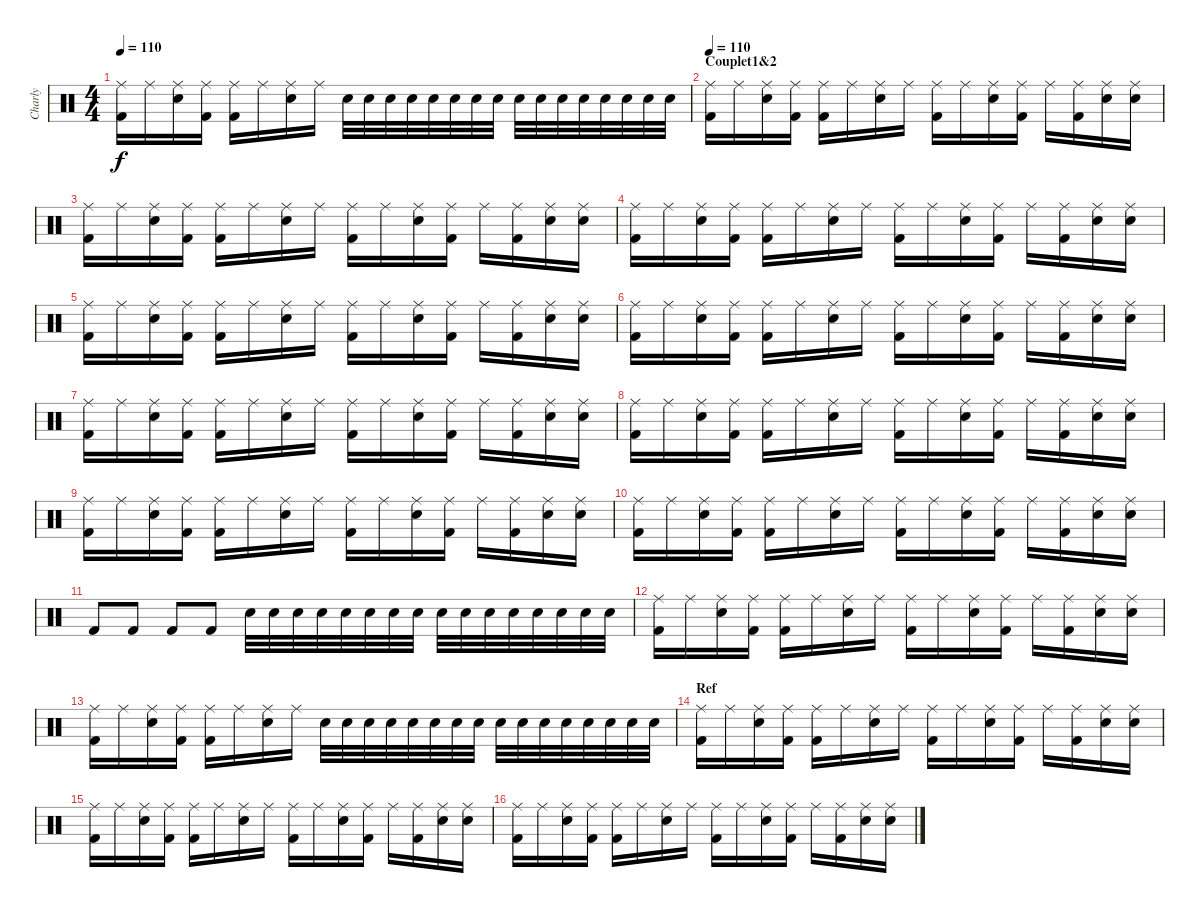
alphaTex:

\track ("Charly" "Charly") {instrument percussion}
\staff {score}
\articulation defaults
\ts (4 4)
\tempo 110
\clef neutral
\ks c
("Ride (middle)" "Kick (hit) 2").16{dy f} "Ride (middle)".16 ("Ride (middle)" "Electric Snare (hit)").16 ("Ride (middle)" "Kick (hit) 2").16 ("Ride (middle)" "Kick (hit) 2").16 "Ride (middle)".16 ("Ride (middle)" "Electric Snare (hit)").16 "Ride (middle)".16 "Electric Snare (hit)".32 "Electric Snare (hit)".32 "Electric Snare (hit)".32 "Electric Snare (hit)".32 "Electric Snare (hit)".32 "Electric Snare (hit)".32 "Electric Snare (hit)".32 "Electric Snare (hit)".32 "Electric Snare (hit)".32 "Electric Snare (hit)".32 "Electric Snare (hit)".32 "Electric Snare (hit)".32 "Electric Snare (hit)".32 "Electric Snare (hit)".32 "Electric Snare (hit)".32 "Electric Snare (hit)".32 |
\section ("" "Couplet1&2")
\tempo 110
("Ride (middle)" "Kick (hit) 2").16 "Ride (middle)".16 ("Ride (middle)" "Electric Snare (hit)").16 ("Ride (middle)" "Kick (hit) 2").16 ("Ride (middle)" "Kick (hit) 2").16 "Ride (middle)".16 ("Ride (middle)" "Electric Snare (hit)").16 "Ride (middle)".16 ("Ride (middle)" "Kick (hit) 2").16 "Ride (middle)".16 ("Ride (middle)" "Electric Snare (hit)").16 ("Ride (middle)" "Kick (hit) 2").16 "Ride (middle)".16 ("Ride (middle)" "Kick (hit) 2").16 ("Ride (middle)" "Electric Snare (hit)").16 ("Ride (middle)" "Electric Snare (hit)").16 |
("Ride (middle)" "Kick (hit) 2").16 "Ride (middle)".16 ("Ride (middle)" "Electric Snare (hit)").16 ("Ride (middle)" "Kick (hit) 2").16 ("Ride (middle)" "Kick (hit) 2").16 "Ride (middle)".16 ("Ride (middle)" "Electric Snare (hit)").16 "Ride (middle)".16 ("Ride (middle)" "Kick (hit) 2").16 "Ride (middle)".16 ("Ride (middle)" "Electric Snare (hit)").16 ("Ride (middle)" "Kick (hit) 2").16 "Ride (middle)".16 ("Ride (middle)" "Kick (hit) 2").16 ("Ride (middle)" "Electric Snare (hit)").16 ("Ride (middle)" "Electric Snare (hit)").16 |
("Ride (middle)" "Kick (hit) 2").16 "Ride (middle)".16 ("Ride (middle)" "Electric Snare (hit)").16 ("Ride (middle)" "Kick (hit) 2").16 ("Ride (middle)" "Kick (hit) 2").16 "Ride (middle)".16 ("Ride (middle)" "Electric Snare (hit)").16 "Ride (middle)".16 ("Ride (middle)" "Kick (hit) 2").16 "Ride (middle)".16 ("Ride (middle)" "Electric Snare (hit)").16 ("Ride (middle)" "Kick (hit) 2").16 "Ride (middle)".16 ("Ride (middle)" "Kick (hit) 2").16 ("Ride (middle)" "Electric Snare (hit)").16 ("Ride (middle)" "Electric Snare (hit)").16 |
("Ride (middle)" "Kick (hit) 2").16 "Ride (middle)".16 ("Ride (middle)" "Electric Snare (hit)").16 ("Ride (middle)" "Kick (hit) 2").16 ("Ride (middle)" "Kick (hit) 2").16 "Ride (middle)".16 ("Ride (middle)" "Electric Snare (hit)").16 "Ride (middle)".16 ("Ride (middle)" "Kick (hit) 2").16 "Ride (middle)".16 ("Ride (middle)" "Electric Snare (hit)").16 ("Ride (middle)" "Kick (hit) 2").16 "Ride (middle)".16 ("Ride (middle)" "Kick (hit) 2").16 ("Ride (middle)" "Electric Snare (hit)").16 ("Ride (middle)" "Electric Snare (hit)").16 |
("Ride (middle)" "Kick (hit) 2").16 "Ride (middle)".16 ("Ride (middle)" "Electric Snare (hit)").16 ("Ride (middle)" "Kick (hit) 2").16 ("Ride (middle)" "Kick (hit) 2").16 "Ride (middle)".16 ("Ride (middle)" "Electric Snare (hit)").16 "Ride (middle)".16 ("Ride (middle)" "Kick (hit) 2").16 "Ride (middle)".16 ("Ride (middle)" "Electric Snare (hit)").16 ("Ride (middle)" "Kick (hit) 2").16 "Ride (middle)".16 ("Ride (middle)" "Kick (hit) 2").16 ("Ride (middle)" "Electric Snare (hit)").16 ("Ride (middle)" "Electric Snare (hit)").16 |
("Ride (middle)" "Kick (hit) 2").16 "Ride (middle)".16 ("Ride (middle)" "Electric Snare (hit)").16 ("Ride (middle)" "Kick (hit) 2").16 ("Ride (middle)" "Kick (hit) 2").16 "Ride (middle)".16 ("Ride (middle)" "Electric Snare (hit)").16 "Ride (middle)".16 ("Ride (middle)" "Kick (hit) 2").16 "Ride (middle)".16 ("Ride (middle)" "Electric Snare (hit)").16 ("Ride (middle)" "Kick (hit) 2").16 "Ride (middle)".16 ("Ride (middle)" "Kick (hit) 2").16 ("Ride (middle)" "Electric Snare (hit)").16 ("Ride (middle)" "Electric Snare (hit)").16 |
("Ride (middle)" "Kick (hit) 2").16 "Ride (middle)".16 ("Ride (middle)" "Electric Snare (hit)").16 ("Ride (middle)" "Kick (hit) 2").16 ("Ride (middle)" "Kick (hit) 2").16 "Ride (middle)".16 ("Ride (middle)" "Electric Snare (hit)").16 "Ride (middle)".16 ("Ride (middle)" "Kick (hit) 2").16 "Ride (middle)".16 ("Ride (middle)" "Electric Snare (hit)").16 ("Ride (middle)" "Kick (hit) 2").16 "Ride (middle)".16 ("Ride (middle)" "Kick (hit) 2").16 ("Ride (middle)" "Electric Snare (hit)").16 ("Ride (middle)" "Electric Snare (hit)").16 |
("Ride (middle)" "Kick (hit) 2").16 "Ride (middle)".16 ("Ride (middle)" "Electric Snare (hit)").16 ("Ride (middle)" "Kick (hit) 2").16 ("Ride (middle)" "Kick (hit) 2").16 "Ride (middle)".16 ("Ride (middle)" "Electric Snare (hit)").16 "Ride (middle)".16 ("Ride (middle)" "Kick (hit) 2").16 "Ride (middle)".16 ("Ride (middle)" "Electric Snare (hit)").16 ("Ride (middle)" "Kick (hit) 2").16 "Ride (middle)".16 ("Ride (middle)" "Kick (hit) 2").16 ("Ride (middle)" "Electric Snare (hit)").16 ("Ride (middle)" "Electric Snare (hit)").16 |
("Ride (middle)" "Kick (hit) 2").16 "Ride (middle)".16 ("Ride (middle)" "Electric Snare (hit)").16 ("Ride (middle)" "Kick (hit) 2").16 ("Ride (middle)" "Kick (hit) 2").16 "Ride (middle)".16 ("Ride (middle)" "Electric Snare (hit)").16 "Ride (middle)".16 ("Ride (middle)" "Kick (hit) 2").16 "Ride (middle)".16 ("Ride (middle)" "Electric Snare (hit)").16 ("Ride (middle)" "Kick (hit) 2").16 "Ride (middle)".16 ("Ride (middle)" "Kick (hit) 2").16 ("Ride (middle)" "Electric Snare (hit)").16 ("Ride (middle)" "Electric Snare (hit)").16 |
"Kick (hit) 2".8 "Kick (hit) 2".8 "Kick (hit) 2".8 "Kick (hit) 2".8 "Electric Snare (hit)".32 "Electric Snare (hit)".32 "Electric Snare (hit)".32 "Electric Snare (hit)".32 "Electric Snare (hit)".32 "Electric Snare (hit)".32 "Electric Snare (hit)".32 "Electric Snare (hit)".32 "Electric Snare (hit)".32 "Electric Snare (hit)".32 "Electric Snare (hit)".32 "Electric Snare (hit)".32 "Electric Snare (hit)".32 "Electric Snare (hit)".32 "Electric Snare (hit)".32 "Electric Snare (hit)".32 |
("Ride (middle)" "Kick (hit) 2").16 "Ride (middle)".16 ("Ride (middle)" "Electric Snare (hit)").16 ("Ride (middle)" "Kick (hit) 2").16 ("Ride (middle)" "Kick (hit) 2").16 "Ride (middle)".16 ("Ride (middle)" "Electric Snare (hit)").16 "Ride (middle)".16 ("Ride (middle)" "Kick (hit) 2").16 "Ride (middle)".16 ("Ride (middle)" "Electric Snare (hit)").16 ("Ride (middle)" "Kick (hit) 2").16 "Ride (middle)".16 ("Ride (middle)" "Kick (hit) 2").16 ("Ride (middle)" "Electric Snare (hit)").16 ("Ride (middle)" "Electric Snare (hit)").16 |
("Ride (middle)" "Kick (hit) 2").16 "Ride (middle)".16 ("Ride (middle)" "Electric Snare (hit)").16 ("Ride (middle)" "Kick (hit) 2").16 ("Ride (middle)" "Kick (hit) 2").16 "Ride (middle)".16 ("Ride (middle)" "Electric Snare (hit)").16 "Ride (middle)".16 "Electric Snare (hit)".32 "Electric Snare (hit)".32 "Electric Snare (hit)".32 "Electric Snare (hit)".32 "Electric Snare (hit)".32 "Electric Snare (hit)".32 "Electric Snare (hit)".32 "Electric Snare (hit)".32 "Electric Snare (hit)".32 "Electric Snare (hit)".32 "Electric Snare (hit)".32 "Electric Snare (hit)".32 "Electric Snare (hit)".32 "Electric Snare (hit)".32 "Electric Snare (hit)".32 "Electric Snare (hit)".32 |
\section ("" "Ref")
("Ride (middle)" "Kick (hit) 2").16 "Ride (middle)".16 ("Ride (middle)" "Electric Snare (hit)").16 ("Ride (middle)" "Kick (hit) 2").16 ("Ride (middle)" "Kick (hit) 2").16 "Ride (middle)".16 ("Ride (middle)" "Electric Snare (hit)").16 "Ride (middle)".16 ("Ride (middle)" "Kick (hit) 2").16 "Ride (middle)".16 ("Ride (middle)" "Electric Snare (hit)").16 ("Ride (middle)" "Kick (hit) 2").16 "Ride (middle)".16 ("Ride (middle)" "Kick (hit) 2").16 ("Ride (middle)" "Electric Snare (hit)").16 ("Ride (middle)" "Electric Snare (hit)").16 |
("Ride (middle)" "Kick (hit) 2").16 "Ride (middle)".16 ("Ride (middle)" "Electric Snare (hit)").16 ("Ride (middle)" "Kick (hit) 2").16 ("Ride (middle)" "Kick (hit) 2").16 "Ride (middle)".16 ("Ride (middle)" "Electric Snare (hit)").16 "Ride (middle)".16 ("Ride (middle)" "Kick (hit) 2").16 "Ride (middle)".16 ("Ride (middle)" "Electric Snare (hit)").16 ("Ride (middle)" "Kick (hit) 2").16 "Ride (middle)".16 ("Ride (middle)" "Kick (hit) 2").16 ("Ride (middle)" "Electric Snare (hit)").16 ("Ride (middle)" "Electric Snare (hit)").16 |
("Ride (middle)" "Kick (hit) 2").16 "Ride (middle)".16 ("Ride (middle)" "Electric Snare (hit)").16 ("Ride (middle)" "Kick (hit) 2").16 ("Ride (middle)" "Kick (hit) 2").16 "Ride (middle)".16 ("Ride (middle)" "Electric Snare (hit)").16 "Ride (middle)".16 ("Ride (middle)" "Kick (hit) 2").16 "Ride (middle)".16 ("Ride (middle)" "Electric Snare (hit)").16 ("Ride (middle)" "Kick (hit) 2").16 "Ride (middle)".16 ("Ride (middle)" "Kick (hit) 2").16 ("Ride (middle)" "Electric Snare (hit)").16 ("Ride (middle)" "Electric Snare (hit)").16
